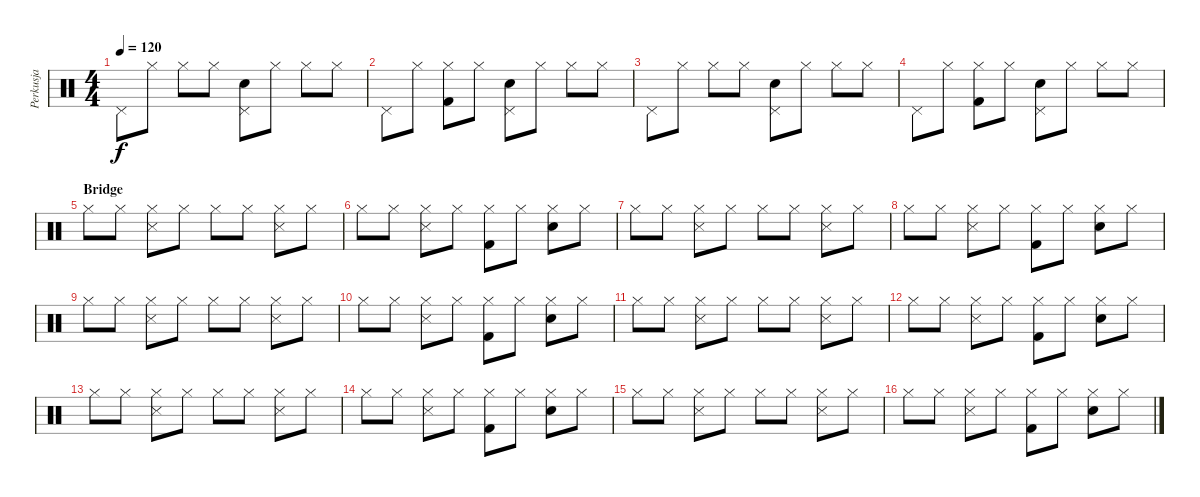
\track ("Perkusja" "Perkusja") {instrument percussion}
\staff {score}
\articulation defaults
\ts (4 4)
\tempo 120
\clef neutral
\ks c "Pedal Hi-Hat (hit)".8{dy f} "Hi-Hat (closed)".8 "Hi-Hat (closed)".8 "Hi-Hat (closed)".8
("Pedal Hi-Hat (hit)" "Snare (hit) 2").8 "Hi-Hat (closed)".8 "Hi-Hat (closed)".8 "Hi-Hat (closed)".8 |
"Pedal Hi-Hat (hit)".8 "Hi-Hat (closed)".8 ("Hi-Hat (closed)" "Kick (hit) 2").8 "Hi-Hat (closed)".8 ("Pedal Hi-Hat (hit)" "Snare (hit) 2").8 "Hi-Hat (closed)".8 "Hi-Hat (closed)".8 "Hi-Hat (closed)".8 |
"Pedal Hi-Hat (hit)".8 "Hi-Hat (closed)".8 "Hi-Hat (closed)".8 "Hi-Hat (closed)".8 ("Pedal Hi-Hat (hit)" "Snare (hit) 2").8 "Hi-Hat (closed)".8 "Hi-Hat (closed)".8 "Hi-Hat (closed)".8 |
"Pedal Hi-Hat (hit)".8 "Hi-Hat (closed)".8 ("Hi-Hat (closed)" "Kick (hit) 2").8 "Hi-Hat (closed)".8 ("Pedal Hi-Hat (hit)" "Snare (hit) 2").8 "Hi-Hat (closed)".8 "Hi-Hat (closed)".8 "Hi-Hat (closed)".8 |
\section ("" "Bridge")
"Hi-Hat (closed)".8 "Hi-Hat (closed)".8 ("Hi-Hat (closed)" "Snare (side stick) 3").8 "Hi-Hat (closed)".8 "Hi-Hat (closed)".8 "Hi-Hat (closed)".8 ("Hi-Hat (closed)" "Snare (side stick) 3").8 "Hi-Hat (closed)".8 |
"Hi-Hat (closed)".8 "Hi-Hat (closed)".8 ("Hi-Hat (closed)" "Snare (side stick) 3").8 "Hi-Hat (closed)".8 ("Hi-Hat (closed)" "Kick (hit) 2").8 "Hi-Hat (closed)".8 ("Hi-Hat (closed)" "Snare (hit) 2").8 "Hi-Hat (closed)".8 |
"Hi-Hat (closed)".8 "Hi-Hat (closed)".8 ("Hi-Hat (closed)" "Snare (side stick) 3").8 "Hi-Hat (closed)".8 "Hi-Hat (closed)".8 "Hi-Hat (closed)".8 ("Hi-Hat (closed)" "Snare (side stick) 3").8 "Hi-Hat (closed)".8 |
"Hi-Hat (closed)".8 "Hi-Hat (closed)".8 ("Hi-Hat (closed)" "Snare (side stick) 3").8 "Hi-Hat (closed)".8 ("Hi-Hat (closed)" "Kick (hit) 2").8 "Hi-Hat (closed)".8 ("Hi-Hat (closed)" "Snare (hit) 2").8 "Hi-Hat (closed)".8 |
"Hi-Hat (closed)".8 "Hi-Hat (closed)".8 ("Hi-Hat (closed)" "Snare (side stick) 3").8 "Hi-Hat (closed)".8 "Hi-Hat (closed)".8 "Hi-Hat (closed)".8 ("Hi-Hat (closed)" "Snare (side stick) 3").8 "Hi-Hat (closed)".8 |
"Hi-Hat (closed)".8 "Hi-Hat (closed)".8 ("Hi-Hat (closed)" "Snare (side stick) 3").8 "Hi-Hat (closed)".8 ("Hi-Hat (closed)" "Kick (hit) 2").8 "Hi-Hat (closed)".8 ("Hi-Hat (closed)" "Snare (hit) 2").8 "Hi-Hat (closed)".8 |
"Hi-Hat (closed)".8 "Hi-Hat (closed)".8 ("Hi-Hat (closed)" "Snare (side stick) 3").8 "Hi-Hat (closed)".8 "Hi-Hat (closed)".8 "Hi-Hat (closed)".8 ("Hi-Hat (closed)" "Snare (side stick) 3").8 "Hi-Hat (closed)".8 |
"Hi-Hat (closed)".8 "Hi-Hat (closed)".8 ("Hi-Hat (closed)" "Snare (side stick) 3").8 "Hi-Hat (closed)".8 ("Hi-Hat (closed)" "Kick (hit) 2").8 "Hi-Hat (closed)".8 ("Hi-Hat (closed)" "Snare (hit) 2").8 "Hi-Hat (closed)".8 |
"Hi-Hat (closed)".8 "Hi-Hat (closed)".8 ("Hi-Hat (closed)" "Snare (side stick) 3").8 "Hi-Hat (closed)".8 "Hi-Hat (closed)".8 "Hi-Hat (closed)".8 ("Hi-Hat (closed)" "Snare (side stick) 3").8 "Hi-Hat (closed)".8 |
"Hi-Hat (closed)".8 "Hi-Hat (closed)".8 ("Hi-Hat (closed)" "Snare (side stick) 3").8 "Hi-Hat (closed)".8 ("Hi-Hat (closed)" "Kick (hit) 2").8 "Hi-Hat (closed)".8 ("Hi-Hat (closed)" "Snare (hit) 2").8 "Hi-Hat (closed)".8 |
"Hi-Hat (closed)".8 "Hi-Hat (closed)".8 ("Hi-Hat (closed)" "Snare (side stick) 3").8 "Hi-Hat (closed)".8 "Hi-Hat (closed)".8 "Hi-Hat (closed)".8 ("Hi-Hat (closed)" "Snare (side stick) 3").8 "Hi-Hat (closed)".8 |
"Hi-Hat (closed)".8 "Hi-Hat (closed)".8 ("Hi-Hat (closed)" "Snare (side stick) 3").8 "Hi-Hat (closed)".8 ("Hi-Hat (closed)" "Kick (hit) 2").8 "Hi-Hat (closed)".8 ("Hi-Hat (closed)" "Snare (hit) 2").8 "Hi-Hat (closed)".8
